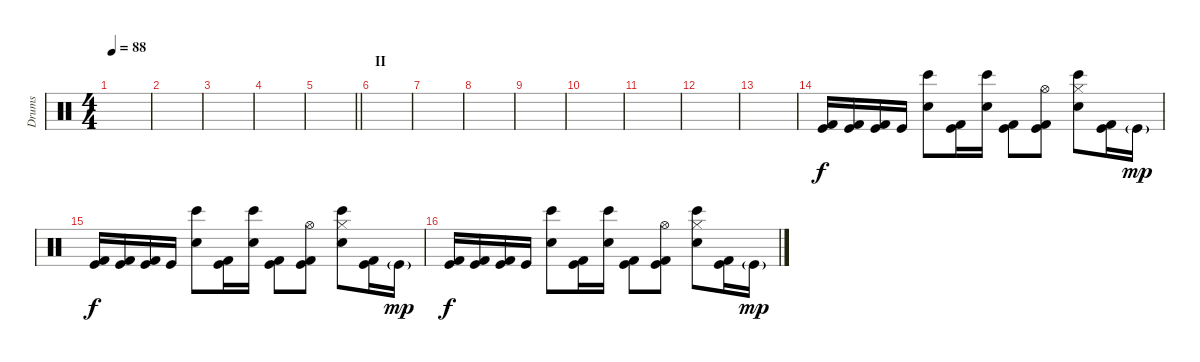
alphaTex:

\track ("Drums" "Drums") {instrument percussion}
\staff {score}
\articulation defaults
\ts (4 4)
\tempo 88
\clef neutral
\ks c
|
|
|
|
\barLineRight lightlight
|
\section ("" "II")
|
|
|
|
|
|
|
|
("Kick (hit) 2" "Kick (hit)").16 ("Kick (hit) 2" "Kick (hit)").16 ("Kick (hit) 2" "Kick (hit)").16 "Kick (hit)".16 ("Bongo High (hit)" "Snare (hit) 2").8 ("Kick (hit) 2" "Kick (hit)").16 ("Bongo High (hit)" "Snare (hit) 2").16 ("Kick (hit) 2" "Kick (hit)").8 ("Hi-Hat (open)" "Kick (hit) 2" "Kick (hit)").8 ("Bongo High (hit)" "Snare (hit) 2" "Hi-Hat (closed)").8 ("Kick (hit) 2" "Kick (hit)").16 "Kick (hit)"{g}.16{dy mp} |
("Kick (hit) 2" "Kick (hit)").16{dy f} ("Kick (hit) 2" "Kick (hit)").16 ("Kick (hit) 2" "Kick (hit)").16 "Kick (hit)".16 ("Bongo High (hit)" "Snare (hit) 2").8 ("Kick (hit) 2" "Kick (hit)").16 ("Bongo High (hit)" "Snare (hit) 2").16 ("Kick (hit) 2" "Kick (hit)").8 ("Hi-Hat (open)" "Kick (hit) 2" "Kick (hit)").8 ("Bongo High (hit)" "Snare (hit) 2" "Hi-Hat (closed)").8 ("Kick (hit) 2" "Kick (hit)").16 "Kick (hit)"{g}.16{dy mp} |
("Kick (hit) 2" "Kick (hit)").16{dy f} ("Kick (hit) 2" "Kick (hit)").16 ("Kick (hit) 2" "Kick (hit)").16 "Kick (hit)".16 ("Bongo High (hit)" "Snare (hit) 2").8 ("Kick (hit) 2" "Kick (hit)").16 ("Bongo High (hit)" "Snare (hit) 2").16 ("Kick (hit) 2" "Kick (hit)").8 ("Hi-Hat (open)" "Kick (hit) 2" "Kick (hit)").8 ("Bongo High (hit)" "Snare (hit) 2" "Hi-Hat (closed)").8 ("Kick (hit) 2" "Kick (hit)").16 "Kick (hit)"{g}.16{dy mp}
